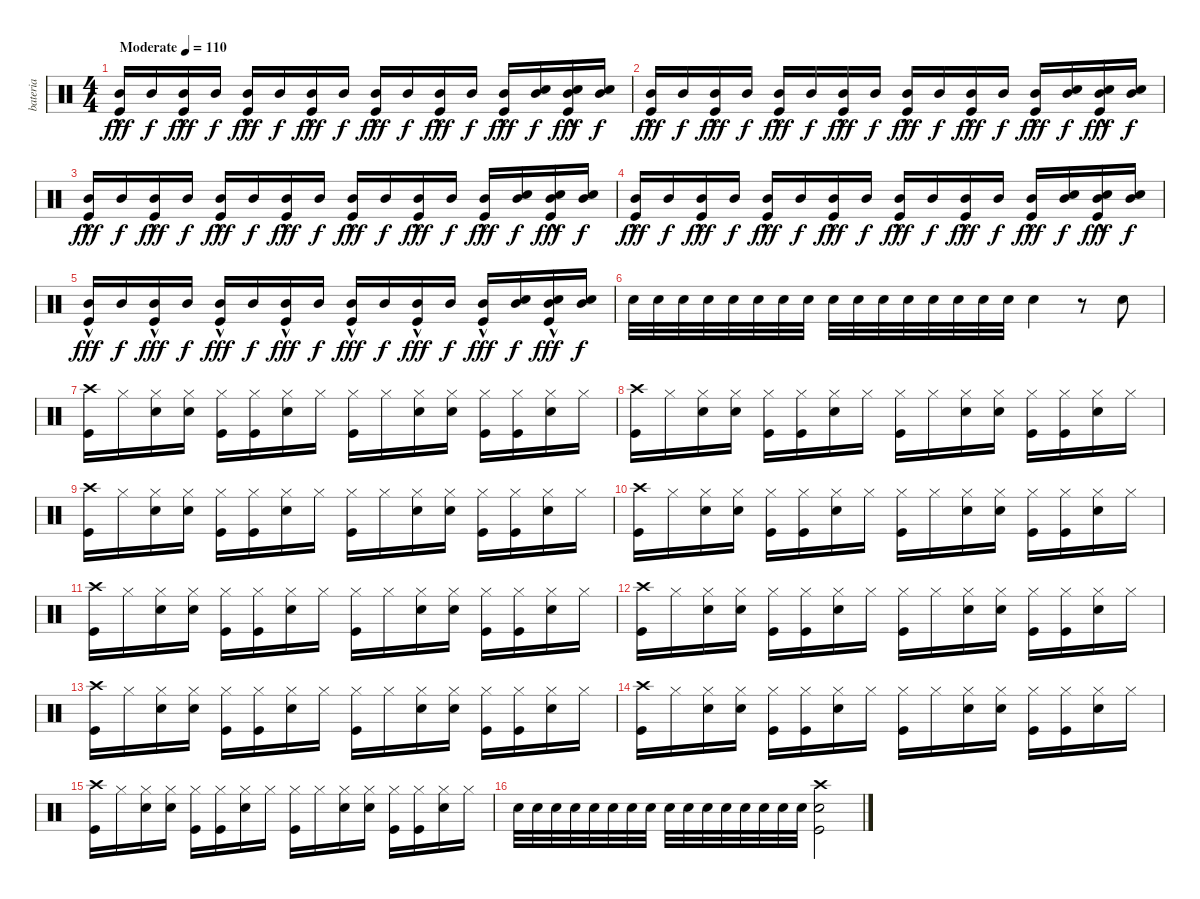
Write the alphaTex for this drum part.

\track ("bateria" "bateria") {instrument percussion}
\staff {score}
\articulation defaults
\ts (4 4)
\tempo (110 "Moderate")
\clef neutral
\ks c
("Mid Tom (hit)"{hac} "Kick (hit)").16{dy fff} "Mid Tom (hit)".16{dy f} ("Mid Tom (hit)"{hac} "Kick (hit)").16{dy fff} "Mid Tom (hit)".16{dy f} ("Mid Tom (hit)"{hac} "Kick (hit)").16{dy fff} "Mid Tom (hit)".16{dy f} ("Mid Tom (hit)"{hac} "Kick (hit)").16{dy fff} "Mid Tom (hit)".16{dy f} ("Mid Tom (hit)"{hac} "Kick (hit)").16{dy fff} "Mid Tom (hit)".16{dy f} ("Mid Tom (hit)"{hac} "Kick (hit)").16{dy fff} "Mid Tom (hit)".16{dy f} ("Mid Tom (hit)"{hac} "Kick (hit)").16{dy fff} ("Snare (hit) 2" "Mid Tom (hit)").16{dy f} ("Snare (hit) 2" "Mid Tom (hit)"{hac} "Kick (hit)").16{dy fff} ("Snare (hit) 2" "Mid Tom (hit)").16{dy f} |
("Mid Tom (hit)"{hac} "Kick (hit)").16{dy fff} "Mid Tom (hit)".16{dy f} ("Mid Tom (hit)"{hac} "Kick (hit)").16{dy fff} "Mid Tom (hit)".16{dy f} ("Mid Tom (hit)"{hac} "Kick (hit)").16{dy fff} "Mid Tom (hit)".16{dy f} ("Mid Tom (hit)"{hac} "Kick (hit)").16{dy fff} "Mid Tom (hit)".16{dy f} ("Mid Tom (hit)"{hac} "Kick (hit)").16{dy fff} "Mid Tom (hit)".16{dy f} ("Mid Tom (hit)"{hac} "Kick (hit)").16{dy fff} "Mid Tom (hit)".16{dy f} ("Mid Tom (hit)"{hac} "Kick (hit)").16{dy fff} ("Snare (hit) 2" "Mid Tom (hit)").16{dy f} ("Snare (hit) 2" "Mid Tom (hit)"{hac} "Kick (hit)").16{dy fff} ("Snare (hit) 2" "Mid Tom (hit)").16{dy f} |
("Mid Tom (hit)"{hac} "Kick (hit)").16{dy fff} "Mid Tom (hit)".16{dy f} ("Mid Tom (hit)"{hac} "Kick (hit)").16{dy fff} "Mid Tom (hit)".16{dy f} ("Mid Tom (hit)"{hac} "Kick (hit)").16{dy fff} "Mid Tom (hit)".16{dy f} ("Mid Tom (hit)"{hac} "Kick (hit)").16{dy fff} "Mid Tom (hit)".16{dy f} ("Mid Tom (hit)"{hac} "Kick (hit)").16{dy fff} "Mid Tom (hit)".16{dy f} ("Mid Tom (hit)"{hac} "Kick (hit)").16{dy fff} "Mid Tom (hit)".16{dy f} ("Mid Tom (hit)"{hac} "Kick (hit)").16{dy fff} ("Snare (hit) 2" "Mid Tom (hit)").16{dy f} ("Snare (hit) 2" "Mid Tom (hit)"{hac} "Kick (hit)").16{dy fff} ("Snare (hit) 2" "Mid Tom (hit)").16{dy f} |
("Mid Tom (hit)"{hac} "Kick (hit)").16{dy fff} "Mid Tom (hit)".16{dy f} ("Mid Tom (hit)"{hac} "Kick (hit)").16{dy fff} "Mid Tom (hit)".16{dy f} ("Mid Tom (hit)"{hac} "Kick (hit)").16{dy fff} "Mid Tom (hit)".16{dy f} ("Mid Tom (hit)"{hac} "Kick (hit)").16{dy fff} "Mid Tom (hit)".16{dy f} ("Mid Tom (hit)"{hac} "Kick (hit)").16{dy fff} "Mid Tom (hit)".16{dy f} ("Mid Tom (hit)"{hac} "Kick (hit)").16{dy fff} "Mid Tom (hit)".16{dy f} ("Mid Tom (hit)"{hac} "Kick (hit)").16{dy fff} ("Snare (hit) 2" "Mid Tom (hit)").16{dy f} ("Snare (hit) 2" "Mid Tom (hit)"{hac} "Kick (hit)").16{dy fff} ("Snare (hit) 2" "Mid Tom (hit)").16{dy f} |
("Mid Tom (hit)"{hac} "Kick (hit)").16{dy fff} "Mid Tom (hit)".16{dy f} ("Mid Tom (hit)"{hac} "Kick (hit)").16{dy fff} "Mid Tom (hit)".16{dy f} ("Mid Tom (hit)"{hac} "Kick (hit)").16{dy fff} "Mid Tom (hit)".16{dy f} ("Mid Tom (hit)"{hac} "Kick (hit)").16{dy fff} "Mid Tom (hit)".16{dy f} ("Mid Tom (hit)"{hac} "Kick (hit)").16{dy fff} "Mid Tom (hit)".16{dy f} ("Mid Tom (hit)"{hac} "Kick (hit)").16{dy fff} "Mid Tom (hit)".16{dy f} ("Mid Tom (hit)"{hac} "Kick (hit)").16{dy fff} ("Snare (hit) 2" "Mid Tom (hit)").16{dy f} ("Snare (hit) 2" "Mid Tom (hit)"{hac} "Kick (hit)").16{dy fff} ("Snare (hit) 2" "Mid Tom (hit)").16{dy f} |
"Snare (hit) 2".32 "Snare (hit) 2".32 "Snare (hit) 2".32 "Snare (hit) 2".32 "Snare (hit) 2".32 "Snare (hit) 2".32 "Snare (hit) 2".32 "Snare (hit) 2".32 "Snare (hit) 2".32 "Snare (hit) 2".32 "Snare (hit) 2".32 "Snare (hit) 2".32 "Snare (hit) 2".32 "Snare (hit) 2".32 "Snare (hit) 2".32 "Snare (hit) 2".32 "Snare (hit) 2".4 r.8 "Snare (hit) 2".8 |
("Crash high (hit)" "Kick (hit)").16 "Hi-Hat (closed)".16 ("Hi-Hat (closed)" "Snare (hit) 2").16 ("Hi-Hat (closed)" "Snare (hit) 2").16 ("Hi-Hat (closed)" "Kick (hit)").16 ("Hi-Hat (closed)" "Kick (hit)").16 ("Hi-Hat (closed)" "Snare (hit) 2").16 "Hi-Hat (closed)".16 ("Hi-Hat (closed)" "Kick (hit)").16 "Hi-Hat (closed)".16 ("Hi-Hat (closed)" "Snare (hit) 2").16 ("Hi-Hat (closed)" "Snare (hit) 2").16 ("Hi-Hat (closed)" "Kick (hit)").16 ("Hi-Hat (closed)" "Kick (hit)").16 ("Hi-Hat (closed)" "Snare (hit) 2").16 "Hi-Hat (closed)".16 |
("Crash high (hit)" "Kick (hit)").16 "Hi-Hat (closed)".16 ("Hi-Hat (closed)" "Snare (hit) 2").16 ("Hi-Hat (closed)" "Snare (hit) 2").16 ("Hi-Hat (closed)" "Kick (hit)").16 ("Hi-Hat (closed)" "Kick (hit)").16 ("Hi-Hat (closed)" "Snare (hit) 2").16 "Hi-Hat (closed)".16 ("Hi-Hat (closed)" "Kick (hit)").16 "Hi-Hat (closed)".16 ("Hi-Hat (closed)" "Snare (hit) 2").16 ("Hi-Hat (closed)" "Snare (hit) 2").16 ("Hi-Hat (closed)" "Kick (hit)").16 ("Hi-Hat (closed)" "Kick (hit)").16 ("Hi-Hat (closed)" "Snare (hit) 2").16 "Hi-Hat (closed)".16 |
("Crash high (hit)" "Kick (hit)").16 "Hi-Hat (closed)".16 ("Hi-Hat (closed)" "Snare (hit) 2").16 ("Hi-Hat (closed)" "Snare (hit) 2").16 ("Hi-Hat (closed)" "Kick (hit)").16 ("Hi-Hat (closed)" "Kick (hit)").16 ("Hi-Hat (closed)" "Snare (hit) 2").16 "Hi-Hat (closed)".16 ("Hi-Hat (closed)" "Kick (hit)").16 "Hi-Hat (closed)".16 ("Hi-Hat (closed)" "Snare (hit) 2").16 ("Hi-Hat (closed)" "Snare (hit) 2").16 ("Hi-Hat (closed)" "Kick (hit)").16 ("Hi-Hat (closed)" "Kick (hit)").16 ("Hi-Hat (closed)" "Snare (hit) 2").16 "Hi-Hat (closed)".16 |
("Crash high (hit)" "Kick (hit)").16 "Hi-Hat (closed)".16 ("Hi-Hat (closed)" "Snare (hit) 2").16 ("Hi-Hat (closed)" "Snare (hit) 2").16 ("Hi-Hat (closed)" "Kick (hit)").16 ("Hi-Hat (closed)" "Kick (hit)").16 ("Hi-Hat (closed)" "Snare (hit) 2").16 "Hi-Hat (closed)".16 ("Hi-Hat (closed)" "Kick (hit)").16 "Hi-Hat (closed)".16 ("Hi-Hat (closed)" "Snare (hit) 2").16 ("Hi-Hat (closed)" "Snare (hit) 2").16 ("Hi-Hat (closed)" "Kick (hit)").16 ("Hi-Hat (closed)" "Kick (hit)").16 ("Hi-Hat (closed)" "Snare (hit) 2").16 "Hi-Hat (closed)".16 |
("Crash high (hit)" "Kick (hit)").16 "Hi-Hat (closed)".16 ("Hi-Hat (closed)" "Snare (hit) 2").16 ("Hi-Hat (closed)" "Snare (hit) 2").16 ("Hi-Hat (closed)" "Kick (hit)").16 ("Hi-Hat (closed)" "Kick (hit)").16 ("Hi-Hat (closed)" "Snare (hit) 2").16 "Hi-Hat (closed)".16 ("Hi-Hat (closed)" "Kick (hit)").16 "Hi-Hat (closed)".16 ("Hi-Hat (closed)" "Snare (hit) 2").16 ("Hi-Hat (closed)" "Snare (hit) 2").16 ("Hi-Hat (closed)" "Kick (hit)").16 ("Hi-Hat (closed)" "Kick (hit)").16 ("Hi-Hat (closed)" "Snare (hit) 2").16 "Hi-Hat (closed)".16 |
("Crash high (hit)" "Kick (hit)").16 "Hi-Hat (closed)".16 ("Hi-Hat (closed)" "Snare (hit) 2").16 ("Hi-Hat (closed)" "Snare (hit) 2").16 ("Hi-Hat (closed)" "Kick (hit)").16 ("Hi-Hat (closed)" "Kick (hit)").16 ("Hi-Hat (closed)" "Snare (hit) 2").16 "Hi-Hat (closed)".16 ("Hi-Hat (closed)" "Kick (hit)").16 "Hi-Hat (closed)".16 ("Hi-Hat (closed)" "Snare (hit) 2").16 ("Hi-Hat (closed)" "Snare (hit) 2").16 ("Hi-Hat (closed)" "Kick (hit)").16 ("Hi-Hat (closed)" "Kick (hit)").16 ("Hi-Hat (closed)" "Snare (hit) 2").16 "Hi-Hat (closed)".16 |
("Crash high (hit)" "Kick (hit)").16 "Hi-Hat (closed)".16 ("Hi-Hat (closed)" "Snare (hit) 2").16 ("Hi-Hat (closed)" "Snare (hit) 2").16 ("Hi-Hat (closed)" "Kick (hit)").16 ("Hi-Hat (closed)" "Kick (hit)").16 ("Hi-Hat (closed)" "Snare (hit) 2").16 "Hi-Hat (closed)".16 ("Hi-Hat (closed)" "Kick (hit)").16 "Hi-Hat (closed)".16 ("Hi-Hat (closed)" "Snare (hit) 2").16 ("Hi-Hat (closed)" "Snare (hit) 2").16 ("Hi-Hat (closed)" "Kick (hit)").16 ("Hi-Hat (closed)" "Kick (hit)").16 ("Hi-Hat (closed)" "Snare (hit) 2").16 "Hi-Hat (closed)".16 |
("Crash high (hit)" "Kick (hit)").16 "Hi-Hat (closed)".16 ("Hi-Hat (closed)" "Snare (hit) 2").16 ("Hi-Hat (closed)" "Snare (hit) 2").16 ("Hi-Hat (closed)" "Kick (hit)").16 ("Hi-Hat (closed)" "Kick (hit)").16 ("Hi-Hat (closed)" "Snare (hit) 2").16 "Hi-Hat (closed)".16 ("Hi-Hat (closed)" "Kick (hit)").16 "Hi-Hat (closed)".16 ("Hi-Hat (closed)" "Snare (hit) 2").16 ("Hi-Hat (closed)" "Snare (hit) 2").16 ("Hi-Hat (closed)" "Kick (hit)").16 ("Hi-Hat (closed)" "Kick (hit)").16 ("Hi-Hat (closed)" "Snare (hit) 2").16 "Hi-Hat (closed)".16 |
("Crash high (hit)" "Kick (hit)").16 "Hi-Hat (closed)".16 ("Hi-Hat (closed)" "Snare (hit) 2").16 ("Hi-Hat (closed)" "Snare (hit) 2").16 ("Hi-Hat (closed)" "Kick (hit)").16 ("Hi-Hat (closed)" "Kick (hit)").16 ("Hi-Hat (closed)" "Snare (hit) 2").16 "Hi-Hat (closed)".16 ("Hi-Hat (closed)" "Kick (hit)").16 "Hi-Hat (closed)".16 ("Hi-Hat (closed)" "Snare (hit) 2").16 ("Hi-Hat (closed)" "Snare (hit) 2").16 ("Hi-Hat (closed)" "Kick (hit)").16 ("Hi-Hat (closed)" "Kick (hit)").16 ("Hi-Hat (closed)" "Snare (hit) 2").16 "Hi-Hat (closed)".16 |
"Snare (hit) 2".32 "Snare (hit) 2".32 "Snare (hit) 2".32 "Snare (hit) 2".32 "Snare (hit) 2".32 "Snare (hit) 2".32 "Snare (hit) 2".32 "Snare (hit) 2".32 "Snare (hit) 2".32 "Snare (hit) 2".32 "Snare (hit) 2".32 "Snare (hit) 2".32 "Snare (hit) 2".32 "Snare (hit) 2".32 "Snare (hit) 2".32 "Snare (hit) 2".32 ("Crash high (hit)" "Snare (hit) 2" "Kick (hit)").2
